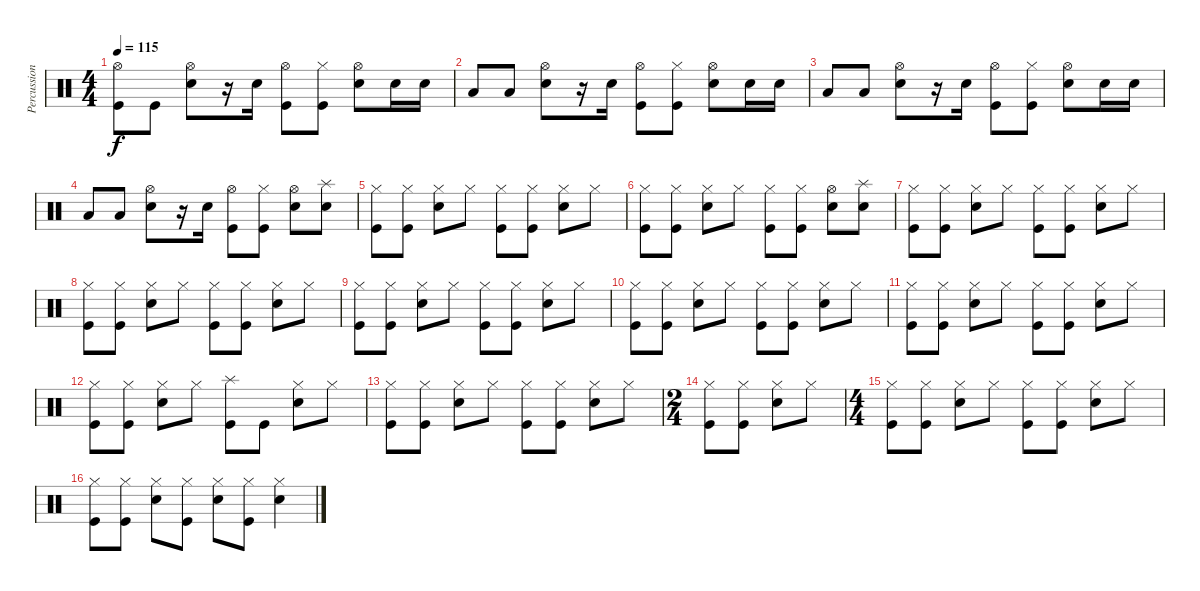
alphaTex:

\track ("Percussion" "Percussion") {instrument percussion}
\staff {score}
\articulation defaults
\ts (4 4)
\tempo 115
\clef neutral
\ks c
("Hi-Hat (open)" "Kick (hit)").8{dy f} "Kick (hit)".8 ("Hi-Hat (open)" "Snare (hit) 2").8 r.16 "Snare (hit) 2".16 ("Hi-Hat (open)" "Kick (hit)").8 ("Hi-Hat (closed)" "Kick (hit)").8 ("Hi-Hat (open)" "Snare (hit) 2").8 "Snare (hit) 2".16 "Snare (hit) 2".16 |
"Low Tom (hit)".8 "Low Tom (hit)".8 ("Hi-Hat (open)" "Snare (hit) 2").8 r.16 "Snare (hit) 2".16 ("Hi-Hat (open)" "Kick (hit)").8 ("Hi-Hat (closed)" "Kick (hit)").8 ("Hi-Hat (open)" "Snare (hit) 2").8 "Snare (hit) 2".16 "Snare (hit) 2".16 |
"Low Tom (hit)".8 "Low Tom (hit)".8 ("Hi-Hat (open)" "Snare (hit) 2").8 r.16 "Snare (hit) 2".16 ("Hi-Hat (open)" "Kick (hit)").8 ("Hi-Hat (closed)" "Kick (hit)").8 ("Hi-Hat (open)" "Snare (hit) 2").8 "Snare (hit) 2".16 "Snare (hit) 2".16 |
"Low Tom (hit)".8 "Low Tom (hit)".8 ("Hi-Hat (open)" "Snare (hit) 2").8 r.16 "Snare (hit) 2".16 ("Hi-Hat (open)" "Kick (hit)").8 ("Hi-Hat (closed)" "Kick (hit)").8 ("Hi-Hat (open)" "Snare (hit) 2").8 ("Splash (hit)" "Snare (hit) 2").8 |
("Hi-Hat (closed)" "Kick (hit)").8 ("Hi-Hat (closed)" "Kick (hit)").8 ("Hi-Hat (closed)" "Snare (hit) 2").8 "Hi-Hat (closed)".8 ("Hi-Hat (closed)" "Kick (hit)").8 ("Hi-Hat (closed)" "Kick (hit)").8 ("Hi-Hat (closed)" "Snare (hit) 2").8 "Hi-Hat (closed)".8 |
("Hi-Hat (closed)" "Kick (hit)").8 ("Hi-Hat (closed)" "Kick (hit)").8 ("Hi-Hat (closed)" "Snare (hit) 2").8 "Hi-Hat (closed)".8 ("Hi-Hat (closed)" "Kick (hit)").8 ("Hi-Hat (closed)" "Kick (hit)").8 ("Hi-Hat (open)" "Snare (hit) 2").8 ("Splash (hit)" "Snare (hit) 2").8 |
("Hi-Hat (closed)" "Kick (hit)").8 ("Hi-Hat (closed)" "Kick (hit)").8 ("Hi-Hat (closed)" "Snare (hit) 2").8 "Hi-Hat (closed)".8 ("Hi-Hat (closed)" "Kick (hit)").8 ("Hi-Hat (closed)" "Kick (hit)").8 ("Hi-Hat (closed)" "Snare (hit) 2").8 "Hi-Hat (closed)".8 |
("Hi-Hat (closed)" "Kick (hit)").8 ("Hi-Hat (closed)" "Kick (hit)").8 ("Hi-Hat (closed)" "Snare (hit) 2").8 "Hi-Hat (closed)".8 ("Hi-Hat (closed)" "Kick (hit)").8 ("Hi-Hat (closed)" "Kick (hit)").8 ("Hi-Hat (closed)" "Snare (hit) 2").8 "Hi-Hat (closed)".8 |
("Hi-Hat (closed)" "Kick (hit)").8 ("Hi-Hat (closed)" "Kick (hit)").8 ("Hi-Hat (closed)" "Snare (hit) 2").8 "Hi-Hat (closed)".8 ("Hi-Hat (closed)" "Kick (hit)").8 ("Hi-Hat (closed)" "Kick (hit)").8 ("Hi-Hat (closed)" "Snare (hit) 2").8 "Hi-Hat (closed)".8 |
("Hi-Hat (closed)" "Kick (hit)").8 ("Hi-Hat (closed)" "Kick (hit)").8 ("Hi-Hat (closed)" "Snare (hit) 2").8 "Hi-Hat (closed)".8 ("Hi-Hat (closed)" "Kick (hit)").8 ("Hi-Hat (closed)" "Kick (hit)").8 ("Hi-Hat (closed)" "Snare (hit) 2").8 "Hi-Hat (closed)".8 |
("Hi-Hat (closed)" "Kick (hit)").8 ("Hi-Hat (closed)" "Kick (hit)").8 ("Hi-Hat (closed)" "Snare (hit) 2").8 "Hi-Hat (closed)".8 ("Hi-Hat (closed)" "Kick (hit)").8 ("Hi-Hat (closed)" "Kick (hit)").8 ("Hi-Hat (closed)" "Snare (hit) 2").8 "Hi-Hat (closed)".8 |
("Hi-Hat (closed)" "Kick (hit)").8 ("Hi-Hat (closed)" "Kick (hit)").8 ("Hi-Hat (closed)" "Snare (hit) 2").8 "Hi-Hat (closed)".8 ("Splash (hit)" "Kick (hit)").8 "Kick (hit)".8 ("Hi-Hat (closed)" "Snare (hit) 2").8 "Hi-Hat (closed)".8 |
("Hi-Hat (closed)" "Kick (hit)").8 ("Hi-Hat (closed)" "Kick (hit)").8 ("Hi-Hat (closed)" "Snare (hit) 2").8 "Hi-Hat (closed)".8 ("Hi-Hat (closed)" "Kick (hit)").8 ("Hi-Hat (closed)" "Kick (hit)").8 ("Hi-Hat (closed)" "Snare (hit) 2").8 "Hi-Hat (closed)".8 |
\ts (2 4)
("Hi-Hat (closed)" "Kick (hit)").8 ("Hi-Hat (closed)" "Kick (hit)").8 ("Hi-Hat (closed)" "Snare (hit) 2").8 "Hi-Hat (closed)".8 |
\ts (4 4)
("Hi-Hat (closed)" "Kick (hit)").8 ("Hi-Hat (closed)" "Kick (hit)").8 ("Hi-Hat (closed)" "Snare (hit) 2").8 "Hi-Hat (closed)".8 ("Hi-Hat (closed)" "Kick (hit)").8 ("Hi-Hat (closed)" "Kick (hit)").8 ("Hi-Hat (closed)" "Snare (hit) 2").8 "Hi-Hat (closed)".8 |
("Hi-Hat (closed)" "Kick (hit)").8 ("Hi-Hat (closed)" "Kick (hit)").8 ("Hi-Hat (closed)" "Snare (hit) 2").8 ("Hi-Hat (closed)" "Kick (hit)").8 ("Hi-Hat (closed)" "Snare (hit) 2").8 ("Hi-Hat (closed)" "Kick (hit)").8 ("Hi-Hat (closed)" "Snare (hit) 2").4
